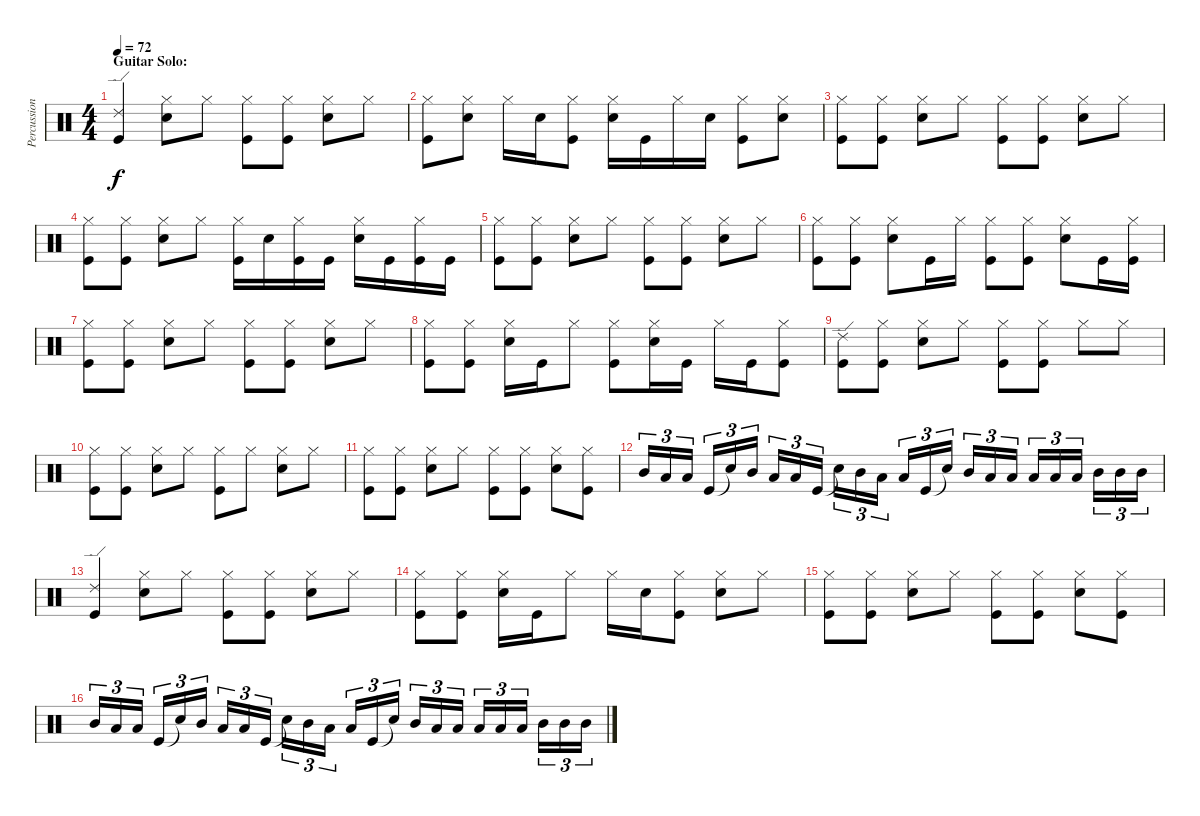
\track ("Percussions" "Percussion") {instrument percussion}
\staff {score}
\articulation defaults
\ts (4 4)
\section ("" "Guitar Solo:")
\tempo 72
\clef neutral
\ks c
("Ride (edge) 2" "Kick (hit)").4{dy f} ("Hi-Hat (closed)" "Snare (hit) 2").8 "Hi-Hat (closed)".8 ("Hi-Hat (closed)" "Kick (hit)").8 ("Hi-Hat (closed)" "Kick (hit)").8 ("Hi-Hat (closed)" "Snare (hit) 2").8 "Hi-Hat (closed)".8 |
("Hi-Hat (closed)" "Kick (hit)").8 ("Hi-Hat (closed)" "Snare (hit) 2").8 "Hi-Hat (closed)".16 "Snare (hit) 2".16 ("Hi-Hat (closed)" "Kick (hit)").8 ("Hi-Hat (closed)" "Snare (hit) 2").16 "Kick (hit)".16 "Hi-Hat (closed)".16 "Snare (hit) 2".16 ("Hi-Hat (closed)" "Kick (hit)").8 ("Hi-Hat (closed)" "Snare (hit) 2").8 |
("Hi-Hat (closed)" "Kick (hit)").8 ("Hi-Hat (closed)" "Kick (hit)").8 ("Hi-Hat (closed)" "Snare (hit) 2").8 "Hi-Hat (closed)".8 ("Hi-Hat (closed)" "Kick (hit)").8 ("Hi-Hat (closed)" "Kick (hit)").8 ("Hi-Hat (closed)" "Snare (hit) 2").8 "Hi-Hat (closed)".8 |
("Hi-Hat (closed)" "Kick (hit)").8 ("Hi-Hat (closed)" "Kick (hit)").8 ("Hi-Hat (closed)" "Snare (hit) 2").8 "Hi-Hat (closed)".8 ("Hi-Hat (closed)" "Kick (hit)").16 "Snare (hit) 2".16 ("Hi-Hat (closed)" "Kick (hit)").16 "Kick (hit)".16 ("Hi-Hat (closed)" "Snare (hit) 2").16 "Kick (hit)".16 ("Hi-Hat (closed)" "Kick (hit)").16 "Kick (hit)".16 |
("Hi-Hat (closed)" "Kick (hit)").8 ("Hi-Hat (closed)" "Kick (hit)").8 ("Hi-Hat (closed)" "Snare (hit) 2").8 "Hi-Hat (closed)".8 ("Hi-Hat (closed)" "Kick (hit)").8 ("Hi-Hat (closed)" "Kick (hit)").8 ("Hi-Hat (closed)" "Snare (hit) 2").8 "Hi-Hat (closed)".8 |
("Hi-Hat (closed)" "Kick (hit)").8 ("Hi-Hat (closed)" "Kick (hit)").8 ("Hi-Hat (closed)" "Snare (hit) 2").8 "Kick (hit)".16 "Hi-Hat (closed)".16 ("Hi-Hat (closed)" "Kick (hit)").8 ("Hi-Hat (closed)" "Kick (hit)").8 ("Hi-Hat (closed)" "Snare (hit) 2").8 "Kick (hit)".16 ("Hi-Hat (closed)" "Kick (hit)").16 |
("Hi-Hat (closed)" "Kick (hit)").8 ("Hi-Hat (closed)" "Kick (hit)").8 ("Hi-Hat (closed)" "Snare (hit) 2").8 "Hi-Hat (closed)".8 ("Hi-Hat (closed)" "Kick (hit)").8 ("Hi-Hat (closed)" "Kick (hit)").8 ("Hi-Hat (closed)" "Snare (hit) 2").8 "Hi-Hat (closed)".8 |
("Hi-Hat (closed)" "Kick (hit)").8 ("Hi-Hat (closed)" "Kick (hit)").8 ("Hi-Hat (closed)" "Snare (hit) 2").16 "Kick (hit)".16 "Hi-Hat (closed)".8 ("Hi-Hat (closed)" "Kick (hit)").8 ("Hi-Hat (closed)" "Snare (hit) 2").16 "Kick (hit)".16 "Hi-Hat (closed)".16 "Kick (hit)".16 ("Hi-Hat (closed)" "Kick (hit)").8 |
("Ride (edge) 2" "Kick (hit)").8 ("Hi-Hat (closed)" "Kick (hit)").8 ("Hi-Hat (closed)" "Snare (hit) 2").8 "Hi-Hat (closed)".8 ("Hi-Hat (closed)" "Kick (hit)").8 ("Hi-Hat (closed)" "Kick (hit)").8 "Hi-Hat (closed)".8 "Hi-Hat (closed)".8 |
("Hi-Hat (closed)" "Kick (hit)").8 ("Hi-Hat (closed)" "Kick (hit)").8 ("Hi-Hat (closed)" "Snare (hit) 2").8 "Hi-Hat (closed)".8 ("Hi-Hat (closed)" "Kick (hit)").8 "Hi-Hat (closed)".8 ("Hi-Hat (closed)" "Snare (hit) 2").8 "Hi-Hat (closed)".8 |
("Hi-Hat (closed)" "Kick (hit)").8 ("Hi-Hat (closed)" "Kick (hit)").8 ("Hi-Hat (closed)" "Snare (hit) 2").8 "Hi-Hat (closed)".8 ("Hi-Hat (closed)" "Kick (hit)").8 ("Hi-Hat (closed)" "Kick (hit)").8 ("Hi-Hat (closed)" "Snare (hit) 2").8 ("Hi-Hat (closed)" "Kick (hit)").8 |
"Mid Tom (hit)".16{tu (3 2)} "Low Tom (hit)".16{tu (3 2)} "Low Tom (hit)".16{tu (3 2) beam splitsecondary} "Kick (hit)".16{tu (3 2)} "Snare (hit)"{t}.16{tu (3 2)} "Mid Tom (hit)".16{tu (3 2)} "Low Tom (hit)".16{tu (3 2)} "Low Tom (hit)".16{tu (3 2)} "Kick (hit)".16{tu (3 2) beam splitsecondary} "Snare (hit)"{t}.16{tu (3 2)} "Mid Tom (hit)".16{tu (3 2)} "Low Tom (hit)".16{tu (3 2)} "Low Tom (hit)".16{tu (3 2)} "Kick (hit)".16{tu (3 2)} "Snare (hit)"{t}.16{tu (3 2) beam splitsecondary} "Mid Tom (hit)".16{tu (3 2)} "Low Tom (hit)".16{tu (3 2)} "Low Tom (hit)".16{tu (3 2)} "Low Tom (hit)".16{tu (3 2)} "Low Tom (hit)".16{tu (3 2)} "Low Tom (hit)".16{tu (3 2) beam splitsecondary} "Mid Tom (hit)".16{tu (3 2)} "Mid Tom (hit)".16{tu (3 2)} "Mid Tom (hit)".16{tu (3 2)} |
("Ride (edge) 2" "Kick (hit)").4 ("Hi-Hat (closed)" "Snare (hit) 2").8 "Hi-Hat (closed)".8 ("Hi-Hat (closed)" "Kick (hit)").8 ("Hi-Hat (closed)" "Kick (hit)").8 ("Hi-Hat (closed)" "Snare (hit) 2").8 "Hi-Hat (closed)".8 |
("Hi-Hat (closed)" "Kick (hit)").8 ("Hi-Hat (closed)" "Kick (hit)").8 ("Hi-Hat (closed)" "Snare (hit) 2").16 "Kick (hit)".16 "Hi-Hat (closed)".8 "Hi-Hat (closed)".16 "Snare (hit) 2".16 ("Hi-Hat (closed)" "Kick (hit)").8 ("Hi-Hat (closed)" "Snare (hit) 2").8 "Hi-Hat (closed)".8 |
("Hi-Hat (closed)" "Kick (hit)").8 ("Hi-Hat (closed)" "Kick (hit)").8 ("Hi-Hat (closed)" "Snare (hit) 2").8 "Hi-Hat (closed)".8 ("Hi-Hat (closed)" "Kick (hit)").8 ("Hi-Hat (closed)" "Kick (hit)").8 ("Hi-Hat (closed)" "Snare (hit) 2").8 ("Hi-Hat (closed)" "Kick (hit)").8 |
"Mid Tom (hit)".16{tu (3 2)} "Low Tom (hit)".16{tu (3 2)} "Low Tom (hit)".16{tu (3 2) beam splitsecondary} "Kick (hit)".16{tu (3 2)} "Snare (hit)"{t}.16{tu (3 2)} "Mid Tom (hit)".16{tu (3 2)} "Low Tom (hit)".16{tu (3 2)} "Low Tom (hit)".16{tu (3 2)} "Kick (hit)".16{tu (3 2) beam splitsecondary} "Snare (hit)"{t}.16{tu (3 2)} "Mid Tom (hit)".16{tu (3 2)} "Low Tom (hit)".16{tu (3 2)} "Low Tom (hit)".16{tu (3 2)} "Kick (hit)".16{tu (3 2)} "Snare (hit)"{t}.16{tu (3 2) beam splitsecondary} "Mid Tom (hit)".16{tu (3 2)} "Low Tom (hit)".16{tu (3 2)} "Low Tom (hit)".16{tu (3 2)} "Low Tom (hit)".16{tu (3 2)} "Low Tom (hit)".16{tu (3 2)} "Low Tom (hit)".16{tu (3 2) beam splitsecondary} "Mid Tom (hit)".16{tu (3 2)} "Mid Tom (hit)".16{tu (3 2)} "Mid Tom (hit)".16{tu (3 2)}
